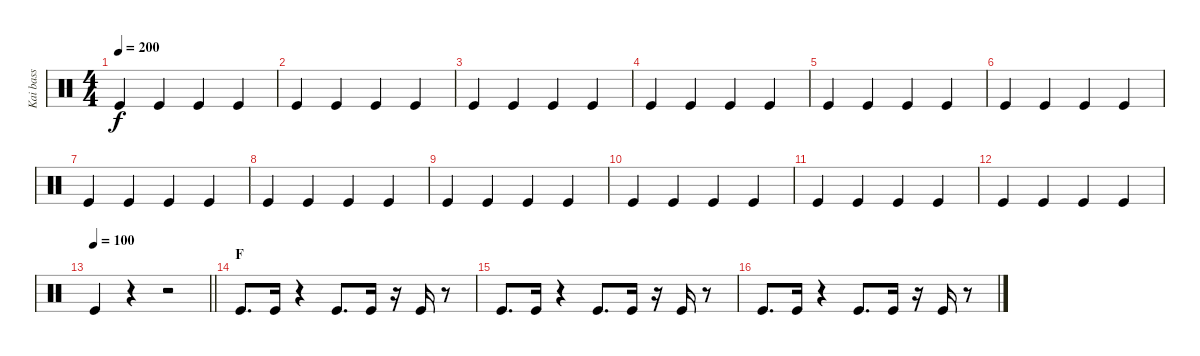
\track ("Kai bass" "Kai bass") {instrument percussion}
\staff {score}
\articulation defaults
\ts (4 4)
\tempo 200
\clef neutral
\ks c "Kick (hit)".4{dy f} "Kick (hit)".4 "Kick (hit)".4 "Kick (hit)".4
|
"Kick (hit)".4 "Kick (hit)".4 "Kick (hit)".4 "Kick (hit)".4 |
"Kick (hit)".4 "Kick (hit)".4 "Kick (hit)".4 "Kick (hit)".4 |
"Kick (hit)".4 "Kick (hit)".4 "Kick (hit)".4 "Kick (hit)".4 |
"Kick (hit)".4 "Kick (hit)".4 "Kick (hit)".4 "Kick (hit)".4 |
"Kick (hit)".4 "Kick (hit)".4 "Kick (hit)".4 "Kick (hit)".4 |
"Kick (hit)".4 "Kick (hit)".4 "Kick (hit)".4 "Kick (hit)".4 |
"Kick (hit)".4 "Kick (hit)".4 "Kick (hit)".4 "Kick (hit)".4 |
"Kick (hit)".4 "Kick (hit)".4 "Kick (hit)".4 "Kick (hit)".4 |
"Kick (hit)".4 "Kick (hit)".4 "Kick (hit)".4 "Kick (hit)".4 |
"Kick (hit)".4 "Kick (hit)".4 "Kick (hit)".4 "Kick (hit)".4 |
"Kick (hit)".4 "Kick (hit)".4 "Kick (hit)".4 "Kick (hit)".4 |
\tempo 100
\barLineRight lightlight "Kick (hit)".4
r.4 r.2 |
\section ("" "F")
"Kick (hit)".8{d} "Kick (hit)".16 r.4 "Kick (hit)".8{d} "Kick (hit)".16 r.16 "Kick (hit)".16 r.8 |
"Kick (hit)".8{d} "Kick (hit)".16 r.4 "Kick (hit)".8{d} "Kick (hit)".16 r.16 "Kick (hit)".16 r.8 |
"Kick (hit)".8{d} "Kick (hit)".16 r.4 "Kick (hit)".8{d} "Kick (hit)".16 r.16 "Kick (hit)".16 r.8
